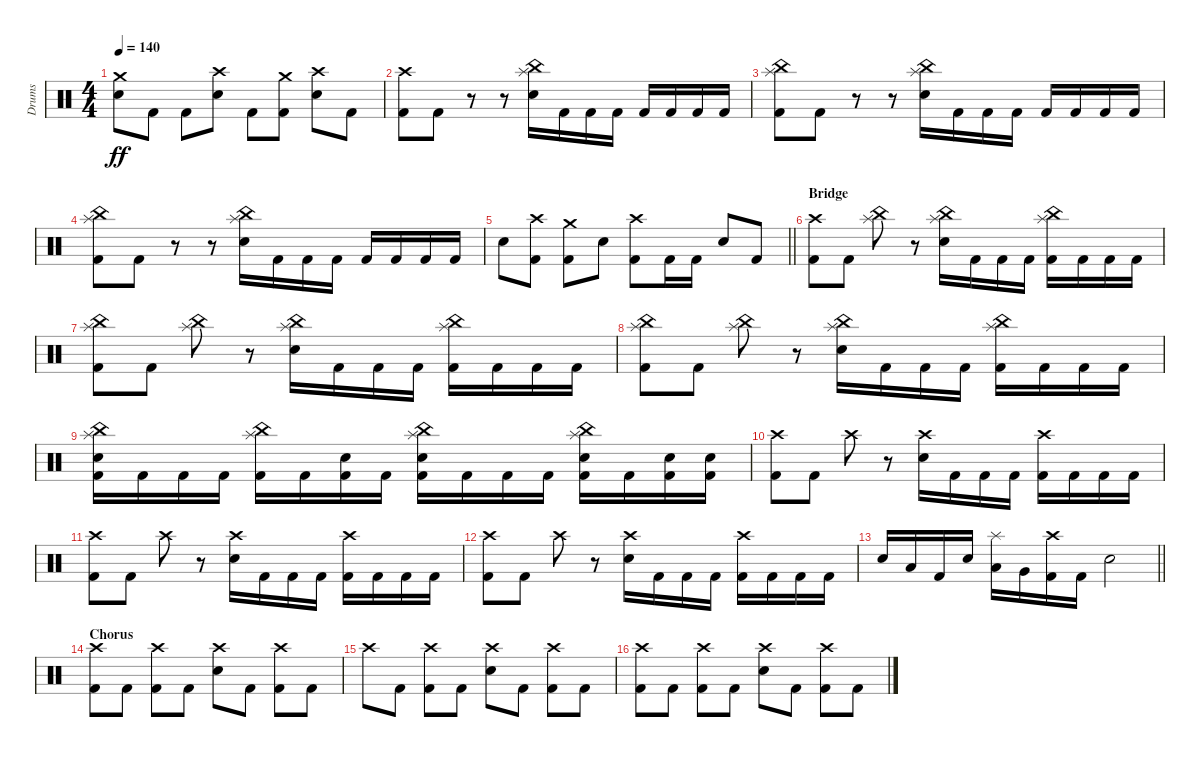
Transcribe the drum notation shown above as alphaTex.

\track ("Drums" "Drums") {instrument percussion}
\staff {score}
\articulation defaults
\ts (4 4)
\tempo 140
\clef neutral
\ks c
("Crash medium (hit)" "Electric Snare (hit)").8{dy ff} "Kick (hit) 2".8 "Kick (hit) 2".8 ("Crash high (hit)" "Electric Snare (hit)").8 "Kick (hit) 2".8 ("Crash medium (hit)" "Kick (hit) 2").8 ("Crash high (hit)" "Electric Snare (hit)").8 "Kick (hit) 2".8 |
("Crash high (hit)" "Kick (hit) 2").8 "Kick (hit) 2".8 r.8 r.8 ("China (hit)" "Splash (hit)" "Electric Snare (hit)").16 "Kick (hit) 2".16 "Kick (hit) 2".16 "Kick (hit) 2".16 "Kick (hit) 2".16 "Kick (hit) 2".16 "Kick (hit) 2".16 "Kick (hit) 2".16 |
("China (hit)" "Splash (hit)" "Kick (hit) 2").8 "Kick (hit) 2".8 r.8 r.8 ("China (hit)" "Splash (hit)" "Electric Snare (hit)").16 "Kick (hit) 2".16 "Kick (hit) 2".16 "Kick (hit) 2".16 "Kick (hit) 2".16 "Kick (hit) 2".16 "Kick (hit) 2".16 "Kick (hit) 2".16 |
("China (hit)" "Splash (hit)" "Kick (hit) 2").8 "Kick (hit) 2".8 r.8 r.8 ("China (hit)" "Splash (hit)" "Electric Snare (hit)").16 "Kick (hit) 2".16 "Kick (hit) 2".16 "Kick (hit) 2".16 "Kick (hit) 2".16 "Kick (hit) 2".16 "Kick (hit) 2".16 "Kick (hit) 2".16 |
\barLineRight lightlight "Electric Snare (hit)".8
("Crash high (hit)" "Kick (hit) 2").8 ("Crash medium (hit)" "Kick (hit) 2").8 "Electric Snare (hit)".8 ("Crash high (hit)" "Kick (hit) 2").8 "Kick (hit) 2".16 "Kick (hit) 2".16 "Electric Snare (hit)".8 "Kick (hit) 2".8 |
\section ("" "Bridge")
("Crash high (hit)" "Kick (hit) 2").8 "Kick (hit) 2".8 ("China (hit)" "Splash (hit)").8 r.8 ("China (hit)" "Splash (hit)" "Electric Snare (hit)").16 "Kick (hit) 2".16 "Kick (hit) 2".16 "Kick (hit) 2".16 ("China (hit)" "Splash (hit)" "Kick (hit) 2").16 "Kick (hit) 2".16 "Kick (hit) 2".16 "Kick (hit) 2".16 |
("China (hit)" "Splash (hit)" "Kick (hit) 2").8 "Kick (hit) 2".8 ("China (hit)" "Splash (hit)").8 r.8 ("China (hit)" "Splash (hit)" "Electric Snare (hit)").16 "Kick (hit) 2".16 "Kick (hit) 2".16 "Kick (hit) 2".16 ("China (hit)" "Splash (hit)" "Kick (hit) 2").16 "Kick (hit) 2".16 "Kick (hit) 2".16 "Kick (hit) 2".16 |
("China (hit)" "Splash (hit)" "Kick (hit) 2").8 "Kick (hit) 2".8 ("China (hit)" "Splash (hit)").8 r.8 ("China (hit)" "Splash (hit)" "Electric Snare (hit)").16 "Kick (hit) 2".16 "Kick (hit) 2".16 "Kick (hit) 2".16 ("China (hit)" "Splash (hit)" "Kick (hit) 2").16 "Kick (hit) 2".16 "Kick (hit) 2".16 "Kick (hit) 2".16 |
("China (hit)" "Splash (hit)" "Electric Snare (hit)" "Kick (hit) 2").16 "Kick (hit) 2".16 "Kick (hit) 2".16 "Kick (hit) 2".16 ("China (hit)" "Splash (hit)" "Kick (hit) 2").16 "Kick (hit) 2".16 ("Electric Snare (hit)" "Kick (hit) 2").16 "Kick (hit) 2".16 ("China (hit)" "Splash (hit)" "Electric Snare (hit)" "Kick (hit) 2").16 "Kick (hit) 2".16 "Kick (hit) 2".16 "Kick (hit) 2".16 ("China (hit)" "Splash (hit)" "Electric Snare (hit)" "Kick (hit) 2").16 "Kick (hit) 2".16 ("Electric Snare (hit)" "Kick (hit) 2").16 ("Electric Snare (hit)" "Kick (hit) 2").16 |
("Crash high (hit)" "Kick (hit) 2").8 "Kick (hit) 2".8 "Crash high (hit)".8 r.8 ("Crash high (hit)" "Electric Snare (hit)").16 "Kick (hit) 2".16 "Kick (hit) 2".16 "Kick (hit) 2".16 ("Crash high (hit)" "Kick (hit) 2").16 "Kick (hit) 2".16 "Kick (hit) 2".16 "Kick (hit) 2".16 |
("Crash high (hit)" "Kick (hit) 2").8 "Kick (hit) 2".8 "Crash high (hit)".8 r.8 ("Crash high (hit)" "Electric Snare (hit)").16 "Kick (hit) 2".16 "Kick (hit) 2".16 "Kick (hit) 2".16 ("Crash high (hit)" "Kick (hit) 2").16 "Kick (hit) 2".16 "Kick (hit) 2".16 "Kick (hit) 2".16 |
("Crash high (hit)" "Kick (hit) 2").8 "Kick (hit) 2".8 "Crash high (hit)".8 r.8 ("Crash high (hit)" "Electric Snare (hit)").16 "Kick (hit) 2".16 "Kick (hit) 2".16 "Kick (hit) 2".16 ("Crash high (hit)" "Kick (hit) 2").16 "Kick (hit) 2".16 "Kick (hit) 2".16 "Kick (hit) 2".16 |
\barLineRight lightlight "Electric Snare (hit)".16 "Low Tom (hit)".16 "Kick (hit) 2".16 "Electric Snare (hit)".16
("Splash (hit)" "Low Tom (hit)").16 "Very Low Tom (hit)".16 ("Crash high (hit)" "Kick (hit) 2").16 "Kick (hit) 2".16 "Electric Snare (hit)".2 |
\section ("" "Chorus")
("Crash high (hit)" "Kick (hit) 2").8 "Kick (hit) 2".8 ("Crash high (hit)" "Kick (hit) 2").8 "Kick (hit) 2".8 ("Crash high (hit)" "Electric Snare (hit)").8 "Kick (hit) 2".8 ("Crash high (hit)" "Kick (hit) 2").8 "Kick (hit) 2".8 |
"Crash high (hit)".8 "Kick (hit) 2".8 ("Crash high (hit)" "Kick (hit) 2").8 "Kick (hit) 2".8 ("Crash high (hit)" "Electric Snare (hit)").8 "Kick (hit) 2".8 ("Crash high (hit)" "Kick (hit) 2").8 "Kick (hit) 2".8 |
("Crash high (hit)" "Kick (hit) 2").8 "Kick (hit) 2".8 ("Crash high (hit)" "Kick (hit) 2").8 "Kick (hit) 2".8 ("Crash high (hit)" "Electric Snare (hit)").8 "Kick (hit) 2".8 ("Crash high (hit)" "Kick (hit) 2").8 "Kick (hit) 2".8
